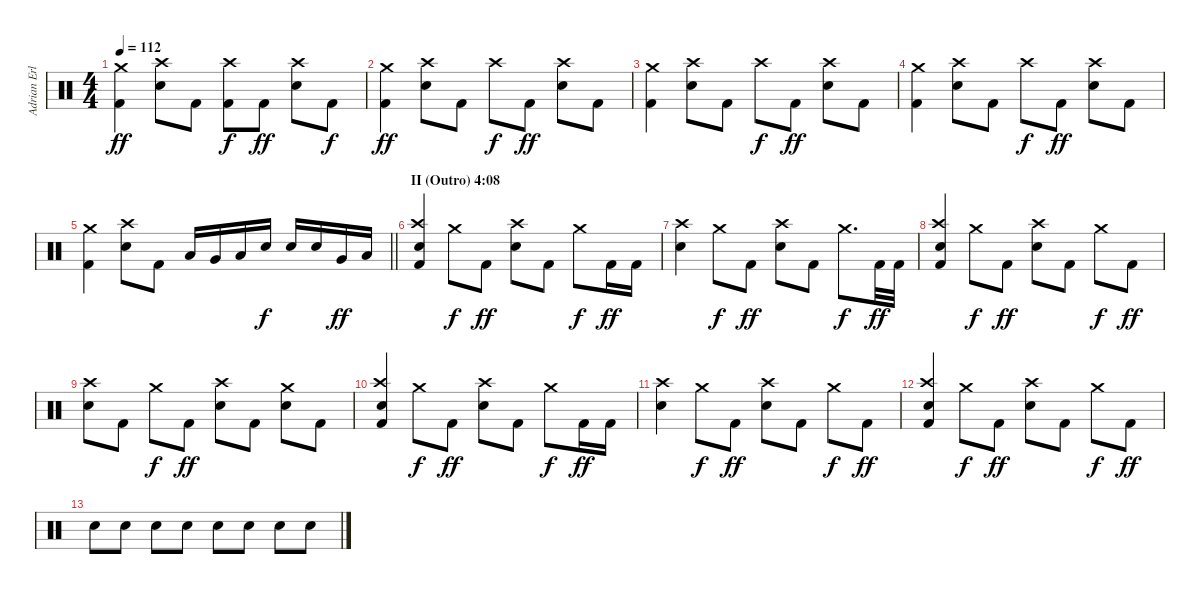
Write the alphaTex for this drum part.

\track ("Adrian Erlandsson (Drums)" "Adrian Erl") {instrument percussion}
\staff {score}
\articulation defaults
\ts (4 4)
\tempo 112
\clef neutral
\ks c
("Crash medium (hit)" "Kick (hit) 2").4{dy ff} ("Crash high (hit)" "Electric Snare (hit)").8 "Kick (hit) 2".8 ("Crash high (hit)" "Kick (hit) 2").8{dy f} "Kick (hit) 2".8{dy ff} ("Crash high (hit)" "Electric Snare (hit)").8 "Kick (hit) 2".8{dy f} |
("Crash medium (hit)" "Kick (hit) 2").4{dy ff} ("Crash high (hit)" "Electric Snare (hit)").8 "Kick (hit) 2".8 "Crash high (hit)".8{dy f} "Kick (hit) 2".8{dy ff} ("Crash high (hit)" "Electric Snare (hit)").8 "Kick (hit) 2".8 |
("Crash medium (hit)" "Kick (hit) 2").4 ("Crash high (hit)" "Electric Snare (hit)").8 "Kick (hit) 2".8 "Crash high (hit)".8{dy f} "Kick (hit) 2".8{dy ff} ("Crash high (hit)" "Electric Snare (hit)").8 "Kick (hit) 2".8 |
("Crash medium (hit)" "Kick (hit) 2").4 ("Crash high (hit)" "Electric Snare (hit)").8 "Kick (hit) 2".8 "Crash high (hit)".8{dy f} "Kick (hit) 2".8{dy ff} ("Crash high (hit)" "Electric Snare (hit)").8 "Kick (hit) 2".8 |
\barLineRight lightlight
("Crash medium (hit)" "Kick (hit) 2").4 ("Crash high (hit)" "Electric Snare (hit)").8 "Kick (hit) 2".8 "Low Tom (hit)".16 "Very Low Tom (hit)".16 "Low Floor Tom (hit)".16 "Electric Snare (hit)".16{dy f} "Electric Snare (hit)".16 "Electric Snare (hit)".16 "Very Low Tom (hit)".16{dy ff} "Low Floor Tom (hit)".16 |
\section ("" "II (Outro) 4:08")
("Crash high (hit)" "Electric Snare (hit)" "Kick (hit) 2").4 "Crash medium (hit)".8{dy f} "Kick (hit) 2".8{dy ff} ("Crash high (hit)" "Electric Snare (hit)").8 "Kick (hit) 2".8 "Crash medium (hit)".8{dy f} "Kick (hit) 2".16{dy ff} "Kick (hit) 2".16 |
("Crash high (hit)" "Electric Snare (hit)").4 "Crash medium (hit)".8{dy f} "Kick (hit) 2".8{dy ff} ("Crash high (hit)" "Electric Snare (hit)").8 "Kick (hit) 2".8 "Crash medium (hit)".8{d dy f} "Kick (hit) 2".32{dy ff} "Kick (hit) 2".32 |
("Crash high (hit)" "Electric Snare (hit)" "Kick (hit) 2").4 "Crash medium (hit)".8{dy f} "Kick (hit) 2".8{dy ff} ("Crash high (hit)" "Electric Snare (hit)").8 "Kick (hit) 2".8 "Crash medium (hit)".8{dy f} "Kick (hit) 2".8{dy ff} |
("Crash high (hit)" "Electric Snare (hit)").8 "Kick (hit) 2".8 "Crash medium (hit)".8{dy f} "Kick (hit) 2".8{dy ff} ("Crash high (hit)" "Electric Snare (hit)").8 "Kick (hit) 2".8 ("Crash medium (hit)" "Electric Snare (hit)").8 "Kick (hit) 2".8 |
("Crash high (hit)" "Electric Snare (hit)" "Kick (hit) 2").4 "Crash medium (hit)".8{dy f} "Kick (hit) 2".8{dy ff} ("Crash high (hit)" "Electric Snare (hit)").8 "Kick (hit) 2".8 "Crash medium (hit)".8{dy f} "Kick (hit) 2".16{dy ff} "Kick (hit) 2".16 |
("Crash high (hit)" "Electric Snare (hit)").4 "Crash medium (hit)".8{dy f} "Kick (hit) 2".8{dy ff} ("Crash high (hit)" "Electric Snare (hit)").8 "Kick (hit) 2".8 "Crash medium (hit)".8{dy f} "Kick (hit) 2".8{dy ff} |
("Crash high (hit)" "Electric Snare (hit)" "Kick (hit) 2").4 "Crash medium (hit)".8{dy f} "Kick (hit) 2".8{dy ff} ("Crash high (hit)" "Electric Snare (hit)").8 "Kick (hit) 2".8 "Crash medium (hit)".8{dy f} "Kick (hit) 2".8{dy ff} |
"Electric Snare (hit)".8 "Electric Snare (hit)".8 "Electric Snare (hit)".8 "Electric Snare (hit)".8 "Electric Snare (hit)".8 "Electric Snare (hit)".8 "Electric Snare (hit)".8 "Electric Snare (hit)".8
